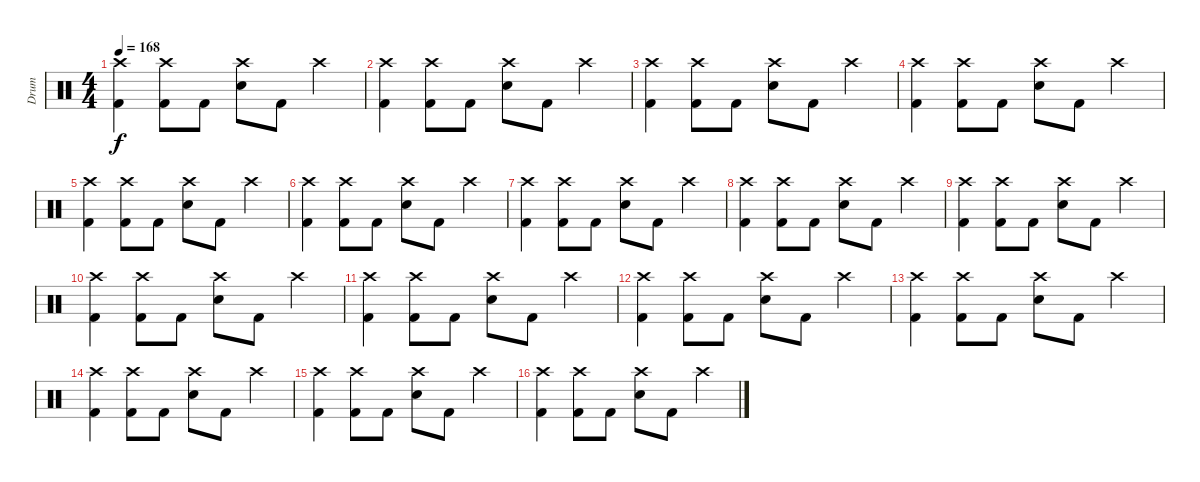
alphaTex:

\track ("Drum" "Drum") {instrument percussion}
\staff {score}
\articulation defaults
\ts (4 4)
\tempo 168
\clef neutral
\ks c
("Crash high (hit)" "Kick (hit) 2").4{dy f} ("Kick (hit) 2" "Crash high (hit)").8 "Kick (hit) 2".8 ("Crash high (hit)" "Electric Snare (hit)").8 "Kick (hit) 2".8 "Crash high (hit)".4 |
("Crash high (hit)" "Kick (hit) 2").4 ("Kick (hit) 2" "Crash high (hit)").8 "Kick (hit) 2".8 ("Crash high (hit)" "Electric Snare (hit)").8 "Kick (hit) 2".8 "Crash high (hit)".4 |
("Crash high (hit)" "Kick (hit) 2").4 ("Kick (hit) 2" "Crash high (hit)").8 "Kick (hit) 2".8 ("Crash high (hit)" "Electric Snare (hit)").8 "Kick (hit) 2".8 "Crash high (hit)".4 |
("Crash high (hit)" "Kick (hit) 2").4 ("Kick (hit) 2" "Crash high (hit)").8 "Kick (hit) 2".8 ("Crash high (hit)" "Electric Snare (hit)").8 "Kick (hit) 2".8 "Crash high (hit)".4 |
("Crash high (hit)" "Kick (hit) 2").4 ("Kick (hit) 2" "Crash high (hit)").8 "Kick (hit) 2".8 ("Crash high (hit)" "Electric Snare (hit)").8 "Kick (hit) 2".8 "Crash high (hit)".4 |
("Crash high (hit)" "Kick (hit) 2").4 ("Kick (hit) 2" "Crash high (hit)").8 "Kick (hit) 2".8 ("Crash high (hit)" "Electric Snare (hit)").8 "Kick (hit) 2".8 "Crash high (hit)".4 |
("Crash high (hit)" "Kick (hit) 2").4 ("Kick (hit) 2" "Crash high (hit)").8 "Kick (hit) 2".8 ("Crash high (hit)" "Electric Snare (hit)").8 "Kick (hit) 2".8 "Crash high (hit)".4 |
("Crash high (hit)" "Kick (hit) 2").4 ("Kick (hit) 2" "Crash high (hit)").8 "Kick (hit) 2".8 ("Crash high (hit)" "Electric Snare (hit)").8 "Kick (hit) 2".8 "Crash high (hit)".4 |
("Crash high (hit)" "Kick (hit) 2").4 ("Kick (hit) 2" "Crash high (hit)").8 "Kick (hit) 2".8 ("Crash high (hit)" "Electric Snare (hit)").8 "Kick (hit) 2".8 "Crash high (hit)".4 |
("Crash high (hit)" "Kick (hit) 2").4 ("Kick (hit) 2" "Crash high (hit)").8 "Kick (hit) 2".8 ("Crash high (hit)" "Electric Snare (hit)").8 "Kick (hit) 2".8 "Crash high (hit)".4 |
("Crash high (hit)" "Kick (hit) 2").4 ("Kick (hit) 2" "Crash high (hit)").8 "Kick (hit) 2".8 ("Crash high (hit)" "Electric Snare (hit)").8 "Kick (hit) 2".8 "Crash high (hit)".4 |
("Crash high (hit)" "Kick (hit) 2").4 ("Kick (hit) 2" "Crash high (hit)").8 "Kick (hit) 2".8 ("Crash high (hit)" "Electric Snare (hit)").8 "Kick (hit) 2".8 "Crash high (hit)".4 |
("Crash high (hit)" "Kick (hit) 2").4 ("Kick (hit) 2" "Crash high (hit)").8 "Kick (hit) 2".8 ("Crash high (hit)" "Electric Snare (hit)").8 "Kick (hit) 2".8 "Crash high (hit)".4 |
("Crash high (hit)" "Kick (hit) 2").4 ("Kick (hit) 2" "Crash high (hit)").8 "Kick (hit) 2".8 ("Crash high (hit)" "Electric Snare (hit)").8 "Kick (hit) 2".8 "Crash high (hit)".4 |
("Crash high (hit)" "Kick (hit) 2").4 ("Kick (hit) 2" "Crash high (hit)").8 "Kick (hit) 2".8 ("Crash high (hit)" "Electric Snare (hit)").8 "Kick (hit) 2".8 "Crash high (hit)".4 |
("Crash high (hit)" "Kick (hit) 2").4 ("Kick (hit) 2" "Crash high (hit)").8 "Kick (hit) 2".8 ("Crash high (hit)" "Electric Snare (hit)").8 "Kick (hit) 2".8 "Crash high (hit)".4
